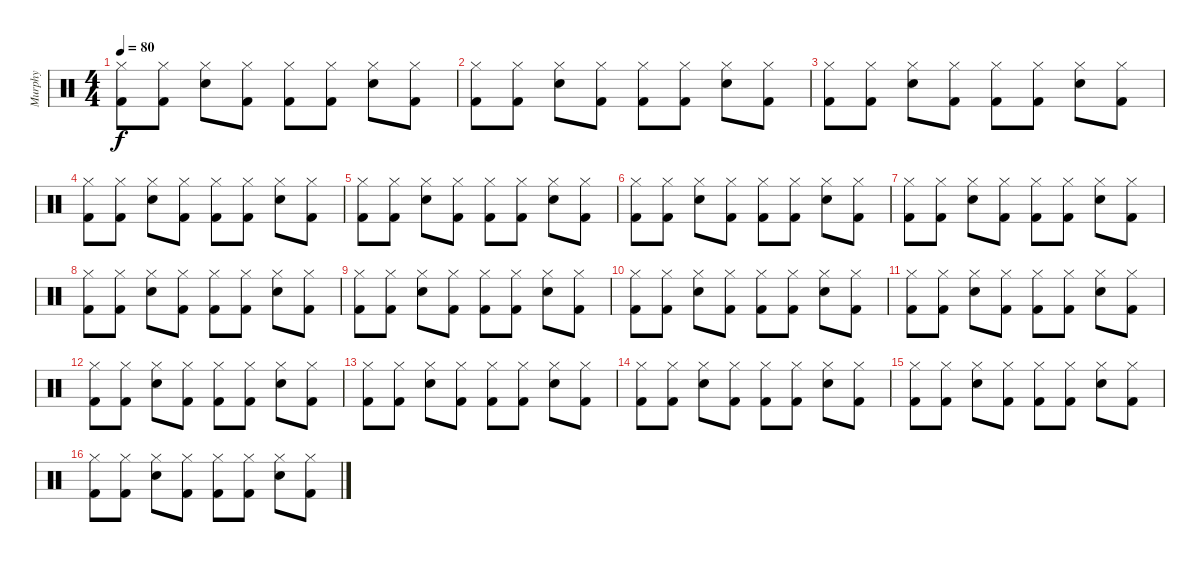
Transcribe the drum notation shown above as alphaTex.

\track ("Murphy" "Murphy") {instrument percussion}
\staff {score}
\articulation defaults
\ts (4 4)
\tempo 80
\clef neutral
\ks c
("Hi-Hat (closed)" "Kick (hit) 2").8{dy f} ("Hi-Hat (closed)" "Kick (hit) 2").8 ("Hi-Hat (closed)" "Snare (hit) 2").8 ("Hi-Hat (closed)" "Kick (hit) 2").8 ("Hi-Hat (closed)" "Kick (hit) 2").8 ("Hi-Hat (closed)" "Kick (hit) 2").8 ("Hi-Hat (closed)" "Snare (hit) 2").8 ("Hi-Hat (closed)" "Kick (hit) 2").8 |
("Hi-Hat (closed)" "Kick (hit) 2").8 ("Hi-Hat (closed)" "Kick (hit) 2").8 ("Hi-Hat (closed)" "Snare (hit) 2").8 ("Hi-Hat (closed)" "Kick (hit) 2").8 ("Hi-Hat (closed)" "Kick (hit) 2").8 ("Hi-Hat (closed)" "Kick (hit) 2").8 ("Hi-Hat (closed)" "Snare (hit) 2").8 ("Hi-Hat (closed)" "Kick (hit) 2").8 |
("Hi-Hat (closed)" "Kick (hit) 2").8 ("Hi-Hat (closed)" "Kick (hit) 2").8 ("Hi-Hat (closed)" "Snare (hit) 2").8 ("Hi-Hat (closed)" "Kick (hit) 2").8 ("Hi-Hat (closed)" "Kick (hit) 2").8 ("Hi-Hat (closed)" "Kick (hit) 2").8 ("Hi-Hat (closed)" "Snare (hit) 2").8 ("Hi-Hat (closed)" "Kick (hit) 2").8 |
("Hi-Hat (closed)" "Kick (hit) 2").8 ("Hi-Hat (closed)" "Kick (hit) 2").8 ("Hi-Hat (closed)" "Snare (hit) 2").8 ("Hi-Hat (closed)" "Kick (hit) 2").8 ("Hi-Hat (closed)" "Kick (hit) 2").8 ("Hi-Hat (closed)" "Kick (hit) 2").8 ("Hi-Hat (closed)" "Snare (hit) 2").8 ("Hi-Hat (closed)" "Kick (hit) 2").8 |
("Hi-Hat (closed)" "Kick (hit) 2").8 ("Hi-Hat (closed)" "Kick (hit) 2").8 ("Hi-Hat (closed)" "Snare (hit) 2").8 ("Hi-Hat (closed)" "Kick (hit) 2").8 ("Hi-Hat (closed)" "Kick (hit) 2").8 ("Hi-Hat (closed)" "Kick (hit) 2").8 ("Hi-Hat (closed)" "Snare (hit) 2").8 ("Hi-Hat (closed)" "Kick (hit) 2").8 |
("Hi-Hat (closed)" "Kick (hit) 2").8 ("Hi-Hat (closed)" "Kick (hit) 2").8 ("Hi-Hat (closed)" "Snare (hit) 2").8 ("Hi-Hat (closed)" "Kick (hit) 2").8 ("Hi-Hat (closed)" "Kick (hit) 2").8 ("Hi-Hat (closed)" "Kick (hit) 2").8 ("Hi-Hat (closed)" "Snare (hit) 2").8 ("Hi-Hat (closed)" "Kick (hit) 2").8 |
("Hi-Hat (closed)" "Kick (hit) 2").8 ("Hi-Hat (closed)" "Kick (hit) 2").8 ("Hi-Hat (closed)" "Snare (hit) 2").8 ("Hi-Hat (closed)" "Kick (hit) 2").8 ("Hi-Hat (closed)" "Kick (hit) 2").8 ("Hi-Hat (closed)" "Kick (hit) 2").8 ("Hi-Hat (closed)" "Snare (hit) 2").8 ("Hi-Hat (closed)" "Kick (hit) 2").8 |
("Hi-Hat (closed)" "Kick (hit) 2").8 ("Hi-Hat (closed)" "Kick (hit) 2").8 ("Hi-Hat (closed)" "Snare (hit) 2").8 ("Hi-Hat (closed)" "Kick (hit) 2").8 ("Hi-Hat (closed)" "Kick (hit) 2").8 ("Hi-Hat (closed)" "Kick (hit) 2").8 ("Hi-Hat (closed)" "Snare (hit) 2").8 ("Hi-Hat (closed)" "Kick (hit) 2").8 |
("Hi-Hat (closed)" "Kick (hit) 2").8 ("Hi-Hat (closed)" "Kick (hit) 2").8 ("Hi-Hat (closed)" "Snare (hit) 2").8 ("Hi-Hat (closed)" "Kick (hit) 2").8 ("Hi-Hat (closed)" "Kick (hit) 2").8 ("Hi-Hat (closed)" "Kick (hit) 2").8 ("Hi-Hat (closed)" "Snare (hit) 2").8 ("Hi-Hat (closed)" "Kick (hit) 2").8 |
("Hi-Hat (closed)" "Kick (hit) 2").8 ("Hi-Hat (closed)" "Kick (hit) 2").8 ("Hi-Hat (closed)" "Snare (hit) 2").8 ("Hi-Hat (closed)" "Kick (hit) 2").8 ("Hi-Hat (closed)" "Kick (hit) 2").8 ("Hi-Hat (closed)" "Kick (hit) 2").8 ("Hi-Hat (closed)" "Snare (hit) 2").8 ("Hi-Hat (closed)" "Kick (hit) 2").8 |
("Hi-Hat (closed)" "Kick (hit) 2").8 ("Hi-Hat (closed)" "Kick (hit) 2").8 ("Hi-Hat (closed)" "Snare (hit) 2").8 ("Hi-Hat (closed)" "Kick (hit) 2").8 ("Hi-Hat (closed)" "Kick (hit) 2").8 ("Hi-Hat (closed)" "Kick (hit) 2").8 ("Hi-Hat (closed)" "Snare (hit) 2").8 ("Hi-Hat (closed)" "Kick (hit) 2").8 |
("Hi-Hat (closed)" "Kick (hit) 2").8 ("Hi-Hat (closed)" "Kick (hit) 2").8 ("Hi-Hat (closed)" "Snare (hit) 2").8 ("Hi-Hat (closed)" "Kick (hit) 2").8 ("Hi-Hat (closed)" "Kick (hit) 2").8 ("Hi-Hat (closed)" "Kick (hit) 2").8 ("Hi-Hat (closed)" "Snare (hit) 2").8 ("Hi-Hat (closed)" "Kick (hit) 2").8 |
("Hi-Hat (closed)" "Kick (hit) 2").8 ("Hi-Hat (closed)" "Kick (hit) 2").8 ("Hi-Hat (closed)" "Snare (hit) 2").8 ("Hi-Hat (closed)" "Kick (hit) 2").8 ("Hi-Hat (closed)" "Kick (hit) 2").8 ("Hi-Hat (closed)" "Kick (hit) 2").8 ("Hi-Hat (closed)" "Snare (hit) 2").8 ("Hi-Hat (closed)" "Kick (hit) 2").8 |
("Hi-Hat (closed)" "Kick (hit) 2").8 ("Hi-Hat (closed)" "Kick (hit) 2").8 ("Hi-Hat (closed)" "Snare (hit) 2").8 ("Hi-Hat (closed)" "Kick (hit) 2").8 ("Hi-Hat (closed)" "Kick (hit) 2").8 ("Hi-Hat (closed)" "Kick (hit) 2").8 ("Hi-Hat (closed)" "Snare (hit) 2").8 ("Hi-Hat (closed)" "Kick (hit) 2").8 |
("Hi-Hat (closed)" "Kick (hit) 2").8 ("Hi-Hat (closed)" "Kick (hit) 2").8 ("Hi-Hat (closed)" "Snare (hit) 2").8 ("Hi-Hat (closed)" "Kick (hit) 2").8 ("Hi-Hat (closed)" "Kick (hit) 2").8 ("Hi-Hat (closed)" "Kick (hit) 2").8 ("Hi-Hat (closed)" "Snare (hit) 2").8 ("Hi-Hat (closed)" "Kick (hit) 2").8 |
("Hi-Hat (closed)" "Kick (hit) 2").8 ("Hi-Hat (closed)" "Kick (hit) 2").8 ("Hi-Hat (closed)" "Snare (hit) 2").8 ("Hi-Hat (closed)" "Kick (hit) 2").8 ("Hi-Hat (closed)" "Kick (hit) 2").8 ("Hi-Hat (closed)" "Kick (hit) 2").8 ("Hi-Hat (closed)" "Snare (hit) 2").8 ("Hi-Hat (closed)" "Kick (hit) 2").8
